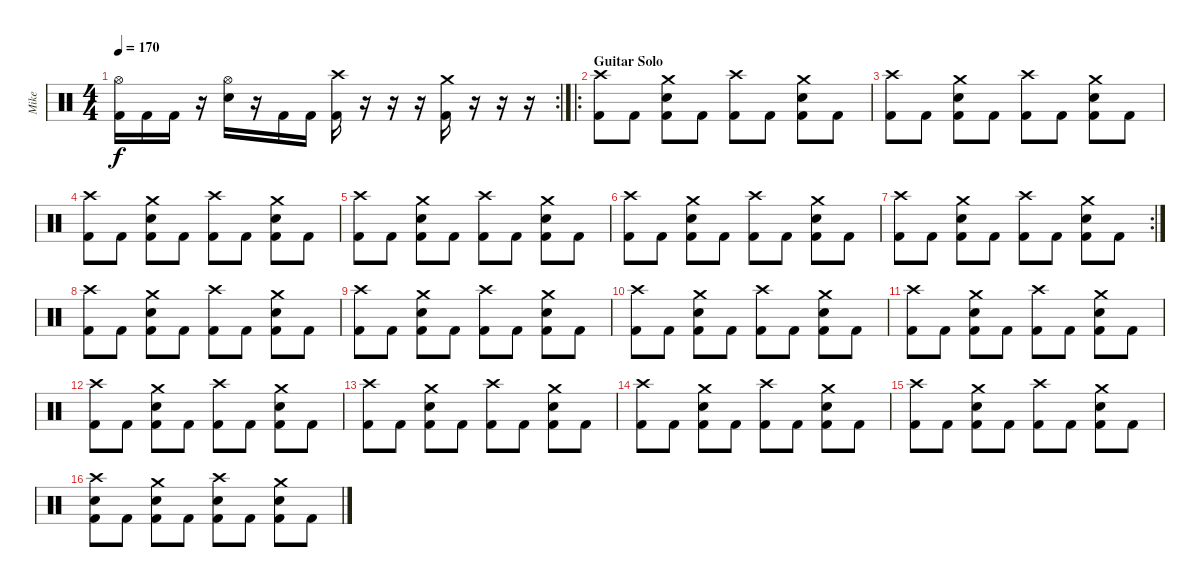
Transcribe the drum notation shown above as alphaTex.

\track ("Mike" "Mike") {instrument percussion}
\staff {score}
\articulation defaults
\rc 2
\ts (4 4)
\tempo 170
\clef neutral
\ks c
("Hi-Hat (open)" "Kick (hit) 2").16{dy f} "Kick (hit) 2".16 "Kick (hit) 2".16 r.16 ("Hi-Hat (open)" "Snare (hit) 2").16 r.16 "Kick (hit) 2".16 "Kick (hit) 2".16 ("Crash high (hit)" "Kick (hit) 2").16 r.16 r.16 r.16 ("Crash medium (hit)" "Kick (hit) 2").16 r.16 r.16 r.16 |
\ro
\section ("" "Guitar Solo")
("Crash high (hit)" "Kick (hit) 2").8 "Kick (hit) 2".8 ("Crash medium (hit)" "Snare (hit) 2" "Kick (hit) 2").8 "Kick (hit) 2".8 ("Crash high (hit)" "Kick (hit) 2").8 "Kick (hit) 2".8 ("Crash medium (hit)" "Snare (hit) 2" "Kick (hit) 2").8 "Kick (hit) 2".8 |
("Crash high (hit)" "Kick (hit) 2").8 "Kick (hit) 2".8 ("Crash medium (hit)" "Snare (hit) 2" "Kick (hit) 2").8 "Kick (hit) 2".8 ("Crash high (hit)" "Kick (hit) 2").8 "Kick (hit) 2".8 ("Crash medium (hit)" "Snare (hit) 2" "Kick (hit) 2").8 "Kick (hit) 2".8 |
("Crash high (hit)" "Kick (hit) 2").8 "Kick (hit) 2".8 ("Crash medium (hit)" "Snare (hit) 2" "Kick (hit) 2").8 "Kick (hit) 2".8 ("Crash high (hit)" "Kick (hit) 2").8 "Kick (hit) 2".8 ("Crash medium (hit)" "Snare (hit) 2" "Kick (hit) 2").8 "Kick (hit) 2".8 |
("Crash high (hit)" "Kick (hit) 2").8 "Kick (hit) 2".8 ("Crash medium (hit)" "Snare (hit) 2" "Kick (hit) 2").8 "Kick (hit) 2".8 ("Crash high (hit)" "Kick (hit) 2").8 "Kick (hit) 2".8 ("Crash medium (hit)" "Snare (hit) 2" "Kick (hit) 2").8 "Kick (hit) 2".8 |
("Crash high (hit)" "Kick (hit) 2").8 "Kick (hit) 2".8 ("Crash medium (hit)" "Snare (hit) 2" "Kick (hit) 2").8 "Kick (hit) 2".8 ("Crash high (hit)" "Kick (hit) 2").8 "Kick (hit) 2".8 ("Crash medium (hit)" "Snare (hit) 2" "Kick (hit) 2").8 "Kick (hit) 2".8 |
\rc 2
("Crash high (hit)" "Kick (hit) 2").8 "Kick (hit) 2".8 ("Crash medium (hit)" "Snare (hit) 2" "Kick (hit) 2").8 "Kick (hit) 2".8 ("Crash high (hit)" "Kick (hit) 2").8 "Kick (hit) 2".8 ("Crash medium (hit)" "Snare (hit) 2" "Kick (hit) 2").8 "Kick (hit) 2".8 |
("Crash high (hit)" "Kick (hit) 2").8 "Kick (hit) 2".8 ("Crash medium (hit)" "Snare (hit) 2" "Kick (hit) 2").8 "Kick (hit) 2".8 ("Crash high (hit)" "Kick (hit) 2").8 "Kick (hit) 2".8 ("Crash medium (hit)" "Snare (hit) 2" "Kick (hit) 2").8 "Kick (hit) 2".8 |
("Crash high (hit)" "Kick (hit) 2").8 "Kick (hit) 2".8 ("Crash medium (hit)" "Snare (hit) 2" "Kick (hit) 2").8 "Kick (hit) 2".8 ("Crash high (hit)" "Kick (hit) 2").8 "Kick (hit) 2".8 ("Crash medium (hit)" "Snare (hit) 2" "Kick (hit) 2").8 "Kick (hit) 2".8 |
("Crash high (hit)" "Kick (hit) 2").8 "Kick (hit) 2".8 ("Crash medium (hit)" "Snare (hit) 2" "Kick (hit) 2").8 "Kick (hit) 2".8 ("Crash high (hit)" "Kick (hit) 2").8 "Kick (hit) 2".8 ("Crash medium (hit)" "Snare (hit) 2" "Kick (hit) 2").8 "Kick (hit) 2".8 |
("Crash high (hit)" "Kick (hit) 2").8 "Kick (hit) 2".8 ("Crash medium (hit)" "Snare (hit) 2" "Kick (hit) 2").8 "Kick (hit) 2".8 ("Crash high (hit)" "Kick (hit) 2").8 "Kick (hit) 2".8 ("Crash medium (hit)" "Snare (hit) 2" "Kick (hit) 2").8 "Kick (hit) 2".8 |
("Crash high (hit)" "Kick (hit) 2").8 "Kick (hit) 2".8 ("Crash medium (hit)" "Snare (hit) 2" "Kick (hit) 2").8 "Kick (hit) 2".8 ("Crash high (hit)" "Kick (hit) 2").8 "Kick (hit) 2".8 ("Crash medium (hit)" "Snare (hit) 2" "Kick (hit) 2").8 "Kick (hit) 2".8 |
("Crash high (hit)" "Kick (hit) 2").8 "Kick (hit) 2".8 ("Crash medium (hit)" "Snare (hit) 2" "Kick (hit) 2").8 "Kick (hit) 2".8 ("Crash high (hit)" "Kick (hit) 2").8 "Kick (hit) 2".8 ("Crash medium (hit)" "Snare (hit) 2" "Kick (hit) 2").8 "Kick (hit) 2".8 |
("Crash high (hit)" "Kick (hit) 2").8 "Kick (hit) 2".8 ("Crash medium (hit)" "Snare (hit) 2" "Kick (hit) 2").8 "Kick (hit) 2".8 ("Crash high (hit)" "Kick (hit) 2").8 "Kick (hit) 2".8 ("Crash medium (hit)" "Snare (hit) 2" "Kick (hit) 2").8 "Kick (hit) 2".8 |
("Crash high (hit)" "Kick (hit) 2").8 "Kick (hit) 2".8 ("Crash medium (hit)" "Snare (hit) 2" "Kick (hit) 2").8 "Kick (hit) 2".8 ("Crash high (hit)" "Kick (hit) 2").8 "Kick (hit) 2".8 ("Crash medium (hit)" "Snare (hit) 2" "Kick (hit) 2").8 "Kick (hit) 2".8 |
("Crash high (hit)" "Snare (hit) 2" "Kick (hit) 2").8 "Kick (hit) 2".8 ("Crash medium (hit)" "Snare (hit) 2" "Kick (hit) 2").8 "Kick (hit) 2".8 ("Crash high (hit)" "Snare (hit) 2" "Kick (hit) 2").8 "Kick (hit) 2".8 ("Crash medium (hit)" "Snare (hit) 2" "Kick (hit) 2").8 "Kick (hit) 2".8
